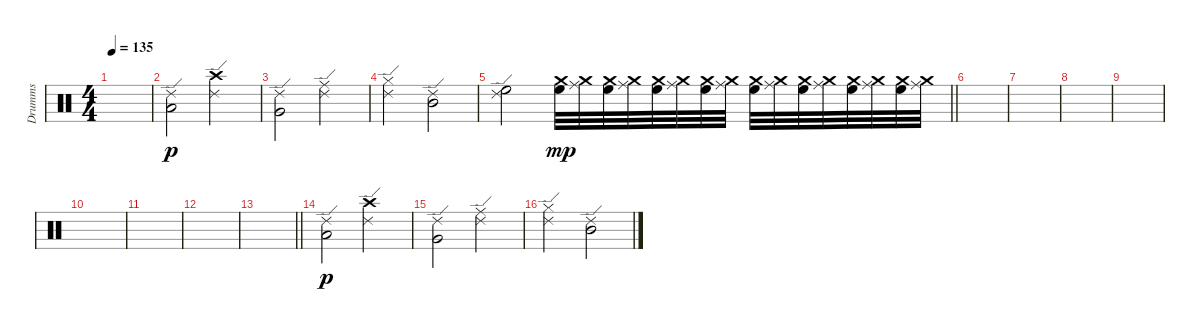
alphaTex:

\track ("Drumms" "Drumms") {instrument percussion}
\staff {score}
\articulation defaults
\ts (4 4)
\tempo 135
\clef neutral
\ks c
|
("Ride (edge) 2" "Low Floor Tom (hit)").2{dy p} ("Ride (edge) 2" "Crash high (hit)").2 |
("Ride (edge) 2" "Very Low Tom (hit)").2 ("Ride (edge) 2" "Ride (middle)").2 |
("Ride (edge) 2" "Hi-Hat (closed)").2 ("Ride (edge) 2" "Mid Tom (hit)").2 |
\barLineRight lightlight
("Ride (edge) 2" "High Floor Tom (hit)").2 ("Crash medium (hit)" "High Floor Tom (hit)").32{dy mp} ("Crash medium (hit)" "Ride (middle)").32 ("Crash medium (hit)" "High Floor Tom (hit)").32 ("Crash medium (hit)" "Ride (middle)").32 ("Crash medium (hit)" "High Floor Tom (hit)").32 ("Crash medium (hit)" "Ride (middle)").32 ("Crash medium (hit)" "High Floor Tom (hit)").32 ("Crash medium (hit)" "Ride (middle)").32 ("Crash medium (hit)" "High Floor Tom (hit)").32 ("Crash medium (hit)" "Ride (middle)").32 ("Crash medium (hit)" "High Floor Tom (hit)").32 ("Crash medium (hit)" "Ride (middle)").32 ("Crash medium (hit)" "High Floor Tom (hit)").32 ("Crash medium (hit)" "Ride (middle)").32 ("Crash medium (hit)" "High Floor Tom (hit)").32 ("Crash medium (hit)" "Ride (middle)").32 |
\section ("" "")
|
|
|
|
|
|
|
\barLineRight lightlight
|
\section ("" "")
("Ride (edge) 2" "Low Floor Tom (hit)").2{dy p} ("Ride (edge) 2" "Crash high (hit)").2 |
("Ride (edge) 2" "Very Low Tom (hit)").2 ("Ride (edge) 2" "Ride (middle)").2 |
("Ride (edge) 2" "Hi-Hat (closed)").2 ("Ride (edge) 2" "Mid Tom (hit)").2
